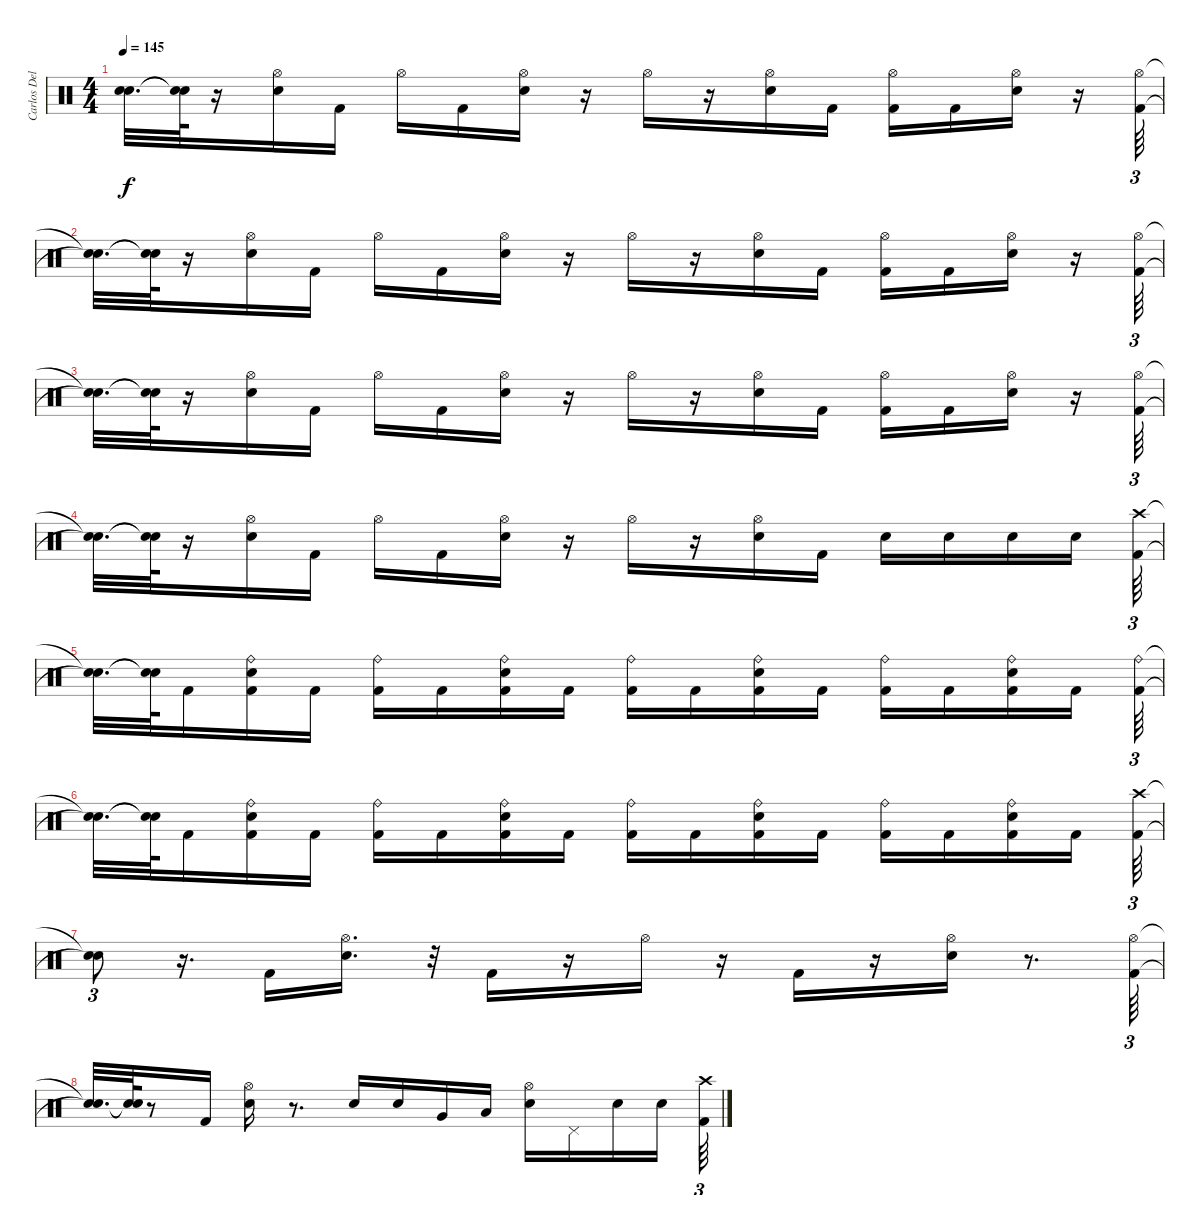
\track ("Carlos Delgado" "Carlos Del") {instrument percussion}
\staff {score}
\articulation defaults
\ts (4 4)
\tempo 145
\clef neutral
\ks c
("Snare (hit)"{t} "Snare (hit)"{t}).32{d dy f} ("Snare (hit)"{t} "Snare (hit)"{t}).64 r.16 ("Electric Snare (hit)" "Hi-Hat (open)").16 "Kick (hit) 2".16 "Hi-Hat (open)".16 "Kick (hit) 2".16 ("Electric Snare (hit)" "Hi-Hat (open)").16 r.16 "Hi-Hat (open)".16 r.16 ("Hi-Hat (open)" "Electric Snare (hit)").16 "Kick (hit) 2".16 ("Hi-Hat (open)" "Kick (hit) 2").16 "Kick (hit) 2".16 ("Hi-Hat (open)" "Electric Snare (hit)").16 r.16 ("Hi-Hat (open)" "Kick (hit) 2").64{tu (3 2)} |
("Snare (hit)"{t} "Snare (hit)"{t}).32{d} ("Snare (hit)"{t} "Snare (hit)"{t}).64 r.16 ("Hi-Hat (open)" "Electric Snare (hit)").16 "Kick (hit) 2".16 "Hi-Hat (open)".16 "Kick (hit) 2".16 ("Electric Snare (hit)" "Hi-Hat (open)").16 r.16 "Hi-Hat (open)".16 r.16 ("Hi-Hat (open)" "Electric Snare (hit)").16 "Kick (hit) 2".16 ("Kick (hit) 2" "Hi-Hat (open)").16 "Kick (hit) 2".16 ("Hi-Hat (open)" "Electric Snare (hit)").16 r.16 ("Hi-Hat (open)" "Kick (hit) 2").64{tu (3 2)} |
("Snare (hit)"{t} "Snare (hit)"{t}).32{d} ("Snare (hit)"{t} "Snare (hit)"{t}).64 r.16 ("Hi-Hat (open)" "Electric Snare (hit)").16 "Kick (hit) 2".16 "Hi-Hat (open)".16 "Kick (hit) 2".16 ("Hi-Hat (open)" "Electric Snare (hit)").16 r.16 "Hi-Hat (open)".16 r.16 ("Hi-Hat (open)" "Electric Snare (hit)").16 "Kick (hit) 2".16 ("Hi-Hat (open)" "Kick (hit) 2").16 "Kick (hit) 2".16 ("Electric Snare (hit)" "Hi-Hat (open)").16 r.16 ("Kick (hit) 2" "Hi-Hat (open)").64{tu (3 2)} |
("Snare (hit)"{t} "Snare (hit)"{t}).32{d} ("Snare (hit)"{t} "Snare (hit)"{t}).64 r.16 ("Electric Snare (hit)" "Hi-Hat (open)").16 "Kick (hit) 2".16 "Hi-Hat (open)".16 "Kick (hit) 2".16 ("Hi-Hat (open)" "Electric Snare (hit)").16 r.16 "Hi-Hat (open)".16 r.16 ("Electric Snare (hit)" "Hi-Hat (open)").16 "Kick (hit) 2".16 "Electric Snare (hit)".16 "Electric Snare (hit)".16 "Electric Snare (hit)".16 "Electric Snare (hit)".16 ("Kick (hit) 2" "Crash high (hit)").64{tu (3 2)} |
("Snare (hit)"{t} "Snare (hit)"{t}).32{d} ("Snare (hit)"{t} "Snare (hit)"{t}).64 "Kick (hit) 2".16 ("Ride (bell)" "Kick (hit) 2" "Electric Snare (hit)").16 "Kick (hit) 2".16 ("Kick (hit) 2" "Ride (bell)").16 "Kick (hit) 2".16 ("Kick (hit) 2" "Electric Snare (hit)" "Ride (bell)").16 "Kick (hit) 2".16 ("Kick (hit) 2" "Ride (bell)").16 "Kick (hit) 2".16 ("Kick (hit) 2" "Electric Snare (hit)" "Ride (bell)").16 "Kick (hit) 2".16 ("Ride (bell)" "Kick (hit) 2").16 "Kick (hit) 2".16 ("Kick (hit) 2" "Electric Snare (hit)" "Ride (bell)").16 "Kick (hit) 2".16 ("Kick (hit) 2" "Ride (bell)").64{tu (3 2)} |
("Snare (hit)"{t} "Snare (hit)"{t}).32{d} ("Snare (hit)"{t} "Snare (hit)"{t}).64 "Kick (hit) 2".16 ("Ride (bell)" "Kick (hit) 2" "Electric Snare (hit)").16 "Kick (hit) 2".16 ("Kick (hit) 2" "Ride (bell)").16 "Kick (hit) 2".16 ("Kick (hit) 2" "Electric Snare (hit)" "Ride (bell)").16 "Kick (hit) 2".16 ("Kick (hit) 2" "Ride (bell)").16 "Kick (hit) 2".16 ("Kick (hit) 2" "Ride (bell)" "Electric Snare (hit)").16 "Kick (hit) 2".16 ("Kick (hit) 2" "Ride (bell)").16 "Kick (hit) 2".16 ("Ride (bell)" "Kick (hit) 2" "Electric Snare (hit)").16 "Kick (hit) 2".16 ("Kick (hit) 2" "Crash high (hit)").64{tu (3 2)} |
("Snare (hit)"{t} "Snare (hit)"{t}).8{tu (3 2)} r.16{d} "Kick (hit) 2".16 ("Hi-Hat (open)" "Electric Snare (hit)").16{d} r.32 "Kick (hit) 2".16 r.16 "Hi-Hat (open)".16 r.16 "Kick (hit) 2".16 r.16 ("Hi-Hat (open)" "Electric Snare (hit)").16 r.8{d} ("Hi-Hat (open)" "Kick (hit) 2").64{tu (3 2)} |
("Snare (hit)"{t} "Snare (hit)"{t}).32{d} ("Snare (hit)"{t} "Snare (hit)"{t}).64 r.8 "Kick (hit) 2".16 ("Electric Snare (hit)" "Hi-Hat (open)").16 r.8{d} "Electric Snare (hit)".16 "Electric Snare (hit)".16 "Very Low Tom (hit)".16 "Low Floor Tom (hit)".16 ("Hi-Hat (open)" "Electric Snare (hit)").16 "Pedal Hi-Hat (hit)".16 "Electric Snare (hit)".16 "Electric Snare (hit)".16 ("Kick (hit) 2" "Crash high (hit)").64{tu (3 2)}
